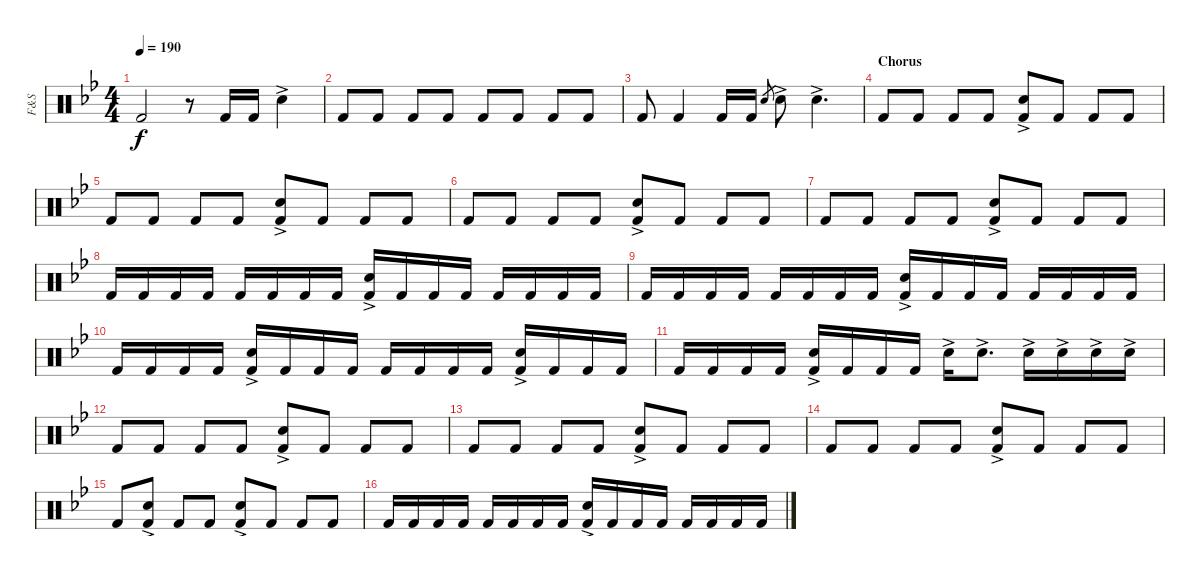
\track ("F&S" "F&S") {instrument percussion}
\staff {score}
\articulation defaults
\ts (4 4)
\tempo 190
\clef neutral
\ks bb "Kick (hit) 2".2{dy f}
r.8 "Kick (hit) 2".16 "Kick (hit) 2".16 "Snare (hit) 2"{ac}.4 |
"Kick (hit) 2".8 "Kick (hit) 2".8 "Kick (hit) 2".8 "Kick (hit) 2".8 "Kick (hit) 2".8 "Kick (hit) 2".8 "Kick (hit) 2".8 "Kick (hit) 2".8 |
"Kick (hit) 2".8 "Kick (hit) 2".4 "Kick (hit) 2".16 "Kick (hit) 2".16 "Snare (hit)".8{gr} "Snare (hit) 2"{ac}.8 "Snare (hit) 2"{ac}.4{d} |
\section ("" "Chorus")
"Kick (hit) 2".8 "Kick (hit) 2".8 "Kick (hit) 2".8 "Kick (hit) 2".8 ("Kick (hit) 2" "Snare (hit) 2"{ac}).8 "Kick (hit) 2".8 "Kick (hit) 2".8 "Kick (hit) 2".8 |
"Kick (hit) 2".8 "Kick (hit) 2".8 "Kick (hit) 2".8 "Kick (hit) 2".8 ("Kick (hit) 2" "Snare (hit) 2"{ac}).8 "Kick (hit) 2".8 "Kick (hit) 2".8 "Kick (hit) 2".8 |
"Kick (hit) 2".8 "Kick (hit) 2".8 "Kick (hit) 2".8 "Kick (hit) 2".8 ("Kick (hit) 2" "Snare (hit) 2"{ac}).8 "Kick (hit) 2".8 "Kick (hit) 2".8 "Kick (hit) 2".8 |
"Kick (hit) 2".8 "Kick (hit) 2".8 "Kick (hit) 2".8 "Kick (hit) 2".8 ("Kick (hit) 2" "Snare (hit) 2"{ac}).8 "Kick (hit) 2".8 "Kick (hit) 2".8 "Kick (hit) 2".8 |
"Kick (hit) 2".16 "Kick (hit) 2".16 "Kick (hit) 2".16 "Kick (hit) 2".16 "Kick (hit) 2".16 "Kick (hit) 2".16 "Kick (hit) 2".16 "Kick (hit) 2".16 ("Kick (hit) 2" "Snare (hit) 2"{ac}).16 "Kick (hit) 2".16 "Kick (hit) 2".16 "Kick (hit) 2".16 "Kick (hit) 2".16 "Kick (hit) 2".16 "Kick (hit) 2".16 "Kick (hit) 2".16 |
"Kick (hit) 2".16 "Kick (hit) 2".16 "Kick (hit) 2".16 "Kick (hit) 2".16 "Kick (hit) 2".16 "Kick (hit) 2".16 "Kick (hit) 2".16 "Kick (hit) 2".16 ("Kick (hit) 2" "Snare (hit) 2"{ac}).16 "Kick (hit) 2".16 "Kick (hit) 2".16 "Kick (hit) 2".16 "Kick (hit) 2".16 "Kick (hit) 2".16 "Kick (hit) 2".16 "Kick (hit) 2".16 |
"Kick (hit) 2".16 "Kick (hit) 2".16 "Kick (hit) 2".16 "Kick (hit) 2".16 ("Kick (hit) 2" "Snare (hit) 2"{ac}).16 "Kick (hit) 2".16 "Kick (hit) 2".16 "Kick (hit) 2".16 "Kick (hit) 2".16 "Kick (hit) 2".16 "Kick (hit) 2".16 "Kick (hit) 2".16 ("Kick (hit) 2" "Snare (hit) 2"{ac}).16 "Kick (hit) 2".16 "Kick (hit) 2".16 "Kick (hit) 2".16 |
"Kick (hit) 2".16 "Kick (hit) 2".16 "Kick (hit) 2".16 "Kick (hit) 2".16 ("Kick (hit) 2" "Snare (hit) 2"{ac}).16 "Kick (hit) 2".16 "Kick (hit) 2".16 "Kick (hit) 2".16 "Snare (hit) 2"{ac}.16 "Snare (hit) 2"{ac}.8{d} "Snare (hit) 2"{ac}.16 "Snare (hit) 2"{ac}.16 "Snare (hit) 2"{ac}.16 "Snare (hit) 2"{ac}.16 |
"Kick (hit) 2".8 "Kick (hit) 2".8 "Kick (hit) 2".8 "Kick (hit) 2".8 ("Kick (hit) 2" "Snare (hit) 2"{ac}).8 "Kick (hit) 2".8 "Kick (hit) 2".8 "Kick (hit) 2".8 |
"Kick (hit) 2".8 "Kick (hit) 2".8 "Kick (hit) 2".8 "Kick (hit) 2".8 ("Kick (hit) 2" "Snare (hit) 2"{ac}).8 "Kick (hit) 2".8 "Kick (hit) 2".8 "Kick (hit) 2".8 |
"Kick (hit) 2".8 "Kick (hit) 2".8 "Kick (hit) 2".8 "Kick (hit) 2".8 ("Kick (hit) 2" "Snare (hit) 2"{ac}).8 "Kick (hit) 2".8 "Kick (hit) 2".8 "Kick (hit) 2".8 |
"Kick (hit) 2".8 ("Kick (hit) 2" "Snare (hit) 2"{ac}).8 "Kick (hit) 2".8 "Kick (hit) 2".8 ("Kick (hit) 2" "Snare (hit) 2"{ac}).8 "Kick (hit) 2".8 "Kick (hit) 2".8 "Kick (hit) 2".8 |
"Kick (hit) 2".16 "Kick (hit) 2".16 "Kick (hit) 2".16 "Kick (hit) 2".16 "Kick (hit) 2".16 "Kick (hit) 2".16 "Kick (hit) 2".16 "Kick (hit) 2".16 ("Kick (hit) 2" "Snare (hit) 2"{ac}).16 "Kick (hit) 2".16 "Kick (hit) 2".16 "Kick (hit) 2".16 "Kick (hit) 2".16 "Kick (hit) 2".16 "Kick (hit) 2".16 "Kick (hit) 2".16
